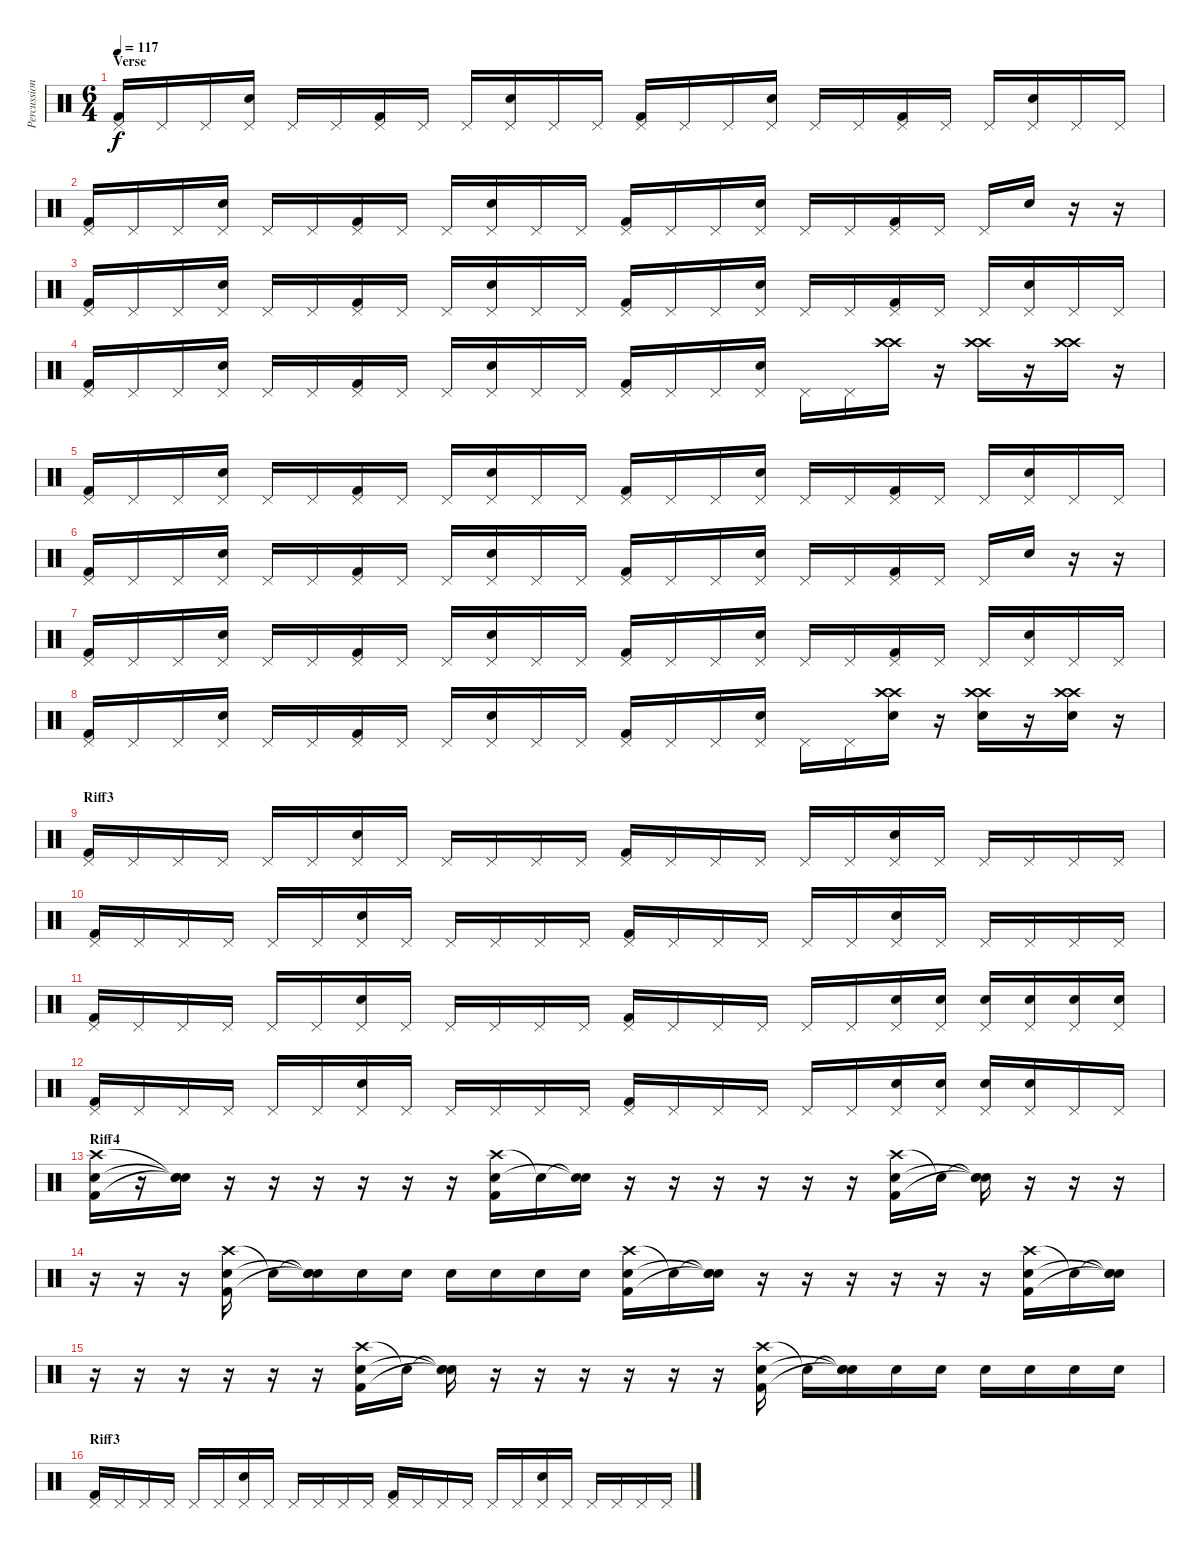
\track ("Percussions" "Percussion") {instrument percussion}
\staff {score}
\articulation defaults
\ts (6 4)
\section ("" "Verse")
\tempo 117
\clef neutral
\ks c
("Pedal Hi-Hat (hit)" "Kick (hit) 2").16{dy f} "Pedal Hi-Hat (hit)".16 "Pedal Hi-Hat (hit)".16 ("Pedal Hi-Hat (hit)" "Electric Snare (hit)").16 "Pedal Hi-Hat (hit)".16 "Pedal Hi-Hat (hit)".16 ("Pedal Hi-Hat (hit)" "Kick (hit) 2").16 "Pedal Hi-Hat (hit)".16 "Pedal Hi-Hat (hit)".16 ("Pedal Hi-Hat (hit)" "Electric Snare (hit)").16 "Pedal Hi-Hat (hit)".16 "Pedal Hi-Hat (hit)".16 ("Pedal Hi-Hat (hit)" "Kick (hit) 2").16 "Pedal Hi-Hat (hit)".16 "Pedal Hi-Hat (hit)".16 ("Pedal Hi-Hat (hit)" "Electric Snare (hit)").16 "Pedal Hi-Hat (hit)".16 "Pedal Hi-Hat (hit)".16 ("Pedal Hi-Hat (hit)" "Kick (hit) 2").16 "Pedal Hi-Hat (hit)".16 "Pedal Hi-Hat (hit)".16 ("Pedal Hi-Hat (hit)" "Electric Snare (hit)").16 "Pedal Hi-Hat (hit)".16 "Pedal Hi-Hat (hit)".16 |
("Pedal Hi-Hat (hit)" "Kick (hit) 2").16 "Pedal Hi-Hat (hit)".16 "Pedal Hi-Hat (hit)".16 ("Pedal Hi-Hat (hit)" "Electric Snare (hit)").16 "Pedal Hi-Hat (hit)".16 "Pedal Hi-Hat (hit)".16 ("Pedal Hi-Hat (hit)" "Kick (hit) 2").16 "Pedal Hi-Hat (hit)".16 "Pedal Hi-Hat (hit)".16 ("Pedal Hi-Hat (hit)" "Electric Snare (hit)").16 "Pedal Hi-Hat (hit)".16 "Pedal Hi-Hat (hit)".16 ("Pedal Hi-Hat (hit)" "Kick (hit) 2").16 "Pedal Hi-Hat (hit)".16 "Pedal Hi-Hat (hit)".16 ("Pedal Hi-Hat (hit)" "Electric Snare (hit)").16 "Pedal Hi-Hat (hit)".16 "Pedal Hi-Hat (hit)".16 ("Pedal Hi-Hat (hit)" "Kick (hit) 2").16 "Pedal Hi-Hat (hit)".16 "Pedal Hi-Hat (hit)".16 "Electric Snare (hit)".16 r.16 r.16 |
("Pedal Hi-Hat (hit)" "Kick (hit) 2").16 "Pedal Hi-Hat (hit)".16 "Pedal Hi-Hat (hit)".16 ("Pedal Hi-Hat (hit)" "Electric Snare (hit)").16 "Pedal Hi-Hat (hit)".16 "Pedal Hi-Hat (hit)".16 ("Pedal Hi-Hat (hit)" "Kick (hit) 2").16 "Pedal Hi-Hat (hit)".16 "Pedal Hi-Hat (hit)".16 ("Pedal Hi-Hat (hit)" "Electric Snare (hit)").16 "Pedal Hi-Hat (hit)".16 "Pedal Hi-Hat (hit)".16 ("Pedal Hi-Hat (hit)" "Kick (hit) 2").16 "Pedal Hi-Hat (hit)".16 "Pedal Hi-Hat (hit)".16 ("Pedal Hi-Hat (hit)" "Electric Snare (hit)").16 "Pedal Hi-Hat (hit)".16 "Pedal Hi-Hat (hit)".16 ("Pedal Hi-Hat (hit)" "Kick (hit) 2").16 "Pedal Hi-Hat (hit)".16 "Pedal Hi-Hat (hit)".16 ("Pedal Hi-Hat (hit)" "Electric Snare (hit)").16 "Pedal Hi-Hat (hit)".16 "Pedal Hi-Hat (hit)".16 |
("Pedal Hi-Hat (hit)" "Kick (hit) 2").16 "Pedal Hi-Hat (hit)".16 "Pedal Hi-Hat (hit)".16 ("Pedal Hi-Hat (hit)" "Electric Snare (hit)").16 "Pedal Hi-Hat (hit)".16 "Pedal Hi-Hat (hit)".16 ("Pedal Hi-Hat (hit)" "Kick (hit) 2").16 "Pedal Hi-Hat (hit)".16 "Pedal Hi-Hat (hit)".16 ("Pedal Hi-Hat (hit)" "Electric Snare (hit)").16 "Pedal Hi-Hat (hit)".16 "Pedal Hi-Hat (hit)".16 ("Pedal Hi-Hat (hit)" "Kick (hit) 2").16 "Pedal Hi-Hat (hit)".16 "Pedal Hi-Hat (hit)".16 ("Pedal Hi-Hat (hit)" "Electric Snare (hit)").16 "Pedal Hi-Hat (hit)".16 "Pedal Hi-Hat (hit)".16 ("Crash high (hit)" "Crash high (hit)").16 r.16 ("Crash high (hit)" "Crash high (hit)").16 r.16 ("Crash high (hit)" "Crash high (hit)").16 r.16 |
("Pedal Hi-Hat (hit)" "Kick (hit) 2").16 "Pedal Hi-Hat (hit)".16 "Pedal Hi-Hat (hit)".16 ("Pedal Hi-Hat (hit)" "Electric Snare (hit)").16 "Pedal Hi-Hat (hit)".16 "Pedal Hi-Hat (hit)".16 ("Pedal Hi-Hat (hit)" "Kick (hit) 2").16 "Pedal Hi-Hat (hit)".16 "Pedal Hi-Hat (hit)".16 ("Pedal Hi-Hat (hit)" "Electric Snare (hit)").16 "Pedal Hi-Hat (hit)".16 "Pedal Hi-Hat (hit)".16 ("Pedal Hi-Hat (hit)" "Kick (hit) 2").16 "Pedal Hi-Hat (hit)".16 "Pedal Hi-Hat (hit)".16 ("Pedal Hi-Hat (hit)" "Electric Snare (hit)").16 "Pedal Hi-Hat (hit)".16 "Pedal Hi-Hat (hit)".16 ("Pedal Hi-Hat (hit)" "Kick (hit) 2").16 "Pedal Hi-Hat (hit)".16 "Pedal Hi-Hat (hit)".16 ("Pedal Hi-Hat (hit)" "Electric Snare (hit)").16 "Pedal Hi-Hat (hit)".16 "Pedal Hi-Hat (hit)".16 |
("Pedal Hi-Hat (hit)" "Kick (hit) 2").16 "Pedal Hi-Hat (hit)".16 "Pedal Hi-Hat (hit)".16 ("Pedal Hi-Hat (hit)" "Electric Snare (hit)").16 "Pedal Hi-Hat (hit)".16 "Pedal Hi-Hat (hit)".16 ("Pedal Hi-Hat (hit)" "Kick (hit) 2").16 "Pedal Hi-Hat (hit)".16 "Pedal Hi-Hat (hit)".16 ("Pedal Hi-Hat (hit)" "Electric Snare (hit)").16 "Pedal Hi-Hat (hit)".16 "Pedal Hi-Hat (hit)".16 ("Pedal Hi-Hat (hit)" "Kick (hit) 2").16 "Pedal Hi-Hat (hit)".16 "Pedal Hi-Hat (hit)".16 ("Pedal Hi-Hat (hit)" "Electric Snare (hit)").16 "Pedal Hi-Hat (hit)".16 "Pedal Hi-Hat (hit)".16 ("Pedal Hi-Hat (hit)" "Kick (hit) 2").16 "Pedal Hi-Hat (hit)".16 "Pedal Hi-Hat (hit)".16 "Electric Snare (hit)".16 r.16 r.16 |
("Pedal Hi-Hat (hit)" "Kick (hit) 2").16 "Pedal Hi-Hat (hit)".16 "Pedal Hi-Hat (hit)".16 ("Pedal Hi-Hat (hit)" "Electric Snare (hit)").16 "Pedal Hi-Hat (hit)".16 "Pedal Hi-Hat (hit)".16 ("Pedal Hi-Hat (hit)" "Kick (hit) 2").16 "Pedal Hi-Hat (hit)".16 "Pedal Hi-Hat (hit)".16 ("Pedal Hi-Hat (hit)" "Electric Snare (hit)").16 "Pedal Hi-Hat (hit)".16 "Pedal Hi-Hat (hit)".16 ("Pedal Hi-Hat (hit)" "Kick (hit) 2").16 "Pedal Hi-Hat (hit)".16 "Pedal Hi-Hat (hit)".16 ("Pedal Hi-Hat (hit)" "Electric Snare (hit)").16 "Pedal Hi-Hat (hit)".16 "Pedal Hi-Hat (hit)".16 ("Pedal Hi-Hat (hit)" "Kick (hit) 2").16 "Pedal Hi-Hat (hit)".16 "Pedal Hi-Hat (hit)".16 ("Pedal Hi-Hat (hit)" "Electric Snare (hit)").16 "Pedal Hi-Hat (hit)".16 "Pedal Hi-Hat (hit)".16 |
("Pedal Hi-Hat (hit)" "Kick (hit) 2").16 "Pedal Hi-Hat (hit)".16 "Pedal Hi-Hat (hit)".16 ("Pedal Hi-Hat (hit)" "Electric Snare (hit)").16 "Pedal Hi-Hat (hit)".16 "Pedal Hi-Hat (hit)".16 ("Pedal Hi-Hat (hit)" "Kick (hit) 2").16 "Pedal Hi-Hat (hit)".16 "Pedal Hi-Hat (hit)".16 ("Pedal Hi-Hat (hit)" "Electric Snare (hit)").16 "Pedal Hi-Hat (hit)".16 "Pedal Hi-Hat (hit)".16 ("Pedal Hi-Hat (hit)" "Kick (hit) 2").16 "Pedal Hi-Hat (hit)".16 "Pedal Hi-Hat (hit)".16 ("Pedal Hi-Hat (hit)" "Electric Snare (hit)").16 "Pedal Hi-Hat (hit)".16 "Pedal Hi-Hat (hit)".16 ("Crash high (hit)" "Crash high (hit)" "Electric Snare (hit)").16 r.16 ("Crash high (hit)" "Crash high (hit)" "Electric Snare (hit)").16 r.16 ("Crash high (hit)" "Crash high (hit)" "Electric Snare (hit)").16 r.16 |
\section ("" "Riff3")
("Pedal Hi-Hat (hit)" "Kick (hit) 2").16 "Pedal Hi-Hat (hit)".16 "Pedal Hi-Hat (hit)".16 "Pedal Hi-Hat (hit)".16 "Pedal Hi-Hat (hit)".16 "Pedal Hi-Hat (hit)".16 ("Pedal Hi-Hat (hit)" "Electric Snare (hit)").16 "Pedal Hi-Hat (hit)".16 "Pedal Hi-Hat (hit)".16 "Pedal Hi-Hat (hit)".16 "Pedal Hi-Hat (hit)".16 "Pedal Hi-Hat (hit)".16 ("Pedal Hi-Hat (hit)" "Kick (hit) 2").16 "Pedal Hi-Hat (hit)".16 "Pedal Hi-Hat (hit)".16 "Pedal Hi-Hat (hit)".16 "Pedal Hi-Hat (hit)".16 "Pedal Hi-Hat (hit)".16 ("Pedal Hi-Hat (hit)" "Electric Snare (hit)").16 "Pedal Hi-Hat (hit)".16 "Pedal Hi-Hat (hit)".16 "Pedal Hi-Hat (hit)".16 "Pedal Hi-Hat (hit)".16 "Pedal Hi-Hat (hit)".16 |
("Pedal Hi-Hat (hit)" "Kick (hit) 2").16 "Pedal Hi-Hat (hit)".16 "Pedal Hi-Hat (hit)".16 "Pedal Hi-Hat (hit)".16 "Pedal Hi-Hat (hit)".16 "Pedal Hi-Hat (hit)".16 ("Pedal Hi-Hat (hit)" "Electric Snare (hit)").16 "Pedal Hi-Hat (hit)".16 "Pedal Hi-Hat (hit)".16 "Pedal Hi-Hat (hit)".16 "Pedal Hi-Hat (hit)".16 "Pedal Hi-Hat (hit)".16 ("Pedal Hi-Hat (hit)" "Kick (hit) 2").16 "Pedal Hi-Hat (hit)".16 "Pedal Hi-Hat (hit)".16 "Pedal Hi-Hat (hit)".16 "Pedal Hi-Hat (hit)".16 "Pedal Hi-Hat (hit)".16 ("Pedal Hi-Hat (hit)" "Electric Snare (hit)").16 "Pedal Hi-Hat (hit)".16 "Pedal Hi-Hat (hit)".16 "Pedal Hi-Hat (hit)".16 "Pedal Hi-Hat (hit)".16 "Pedal Hi-Hat (hit)".16 |
("Pedal Hi-Hat (hit)" "Kick (hit) 2").16 "Pedal Hi-Hat (hit)".16 "Pedal Hi-Hat (hit)".16 "Pedal Hi-Hat (hit)".16 "Pedal Hi-Hat (hit)".16 "Pedal Hi-Hat (hit)".16 ("Pedal Hi-Hat (hit)" "Electric Snare (hit)").16 "Pedal Hi-Hat (hit)".16 "Pedal Hi-Hat (hit)".16 "Pedal Hi-Hat (hit)".16 "Pedal Hi-Hat (hit)".16 "Pedal Hi-Hat (hit)".16 ("Pedal Hi-Hat (hit)" "Kick (hit) 2").16 "Pedal Hi-Hat (hit)".16 "Pedal Hi-Hat (hit)".16 "Pedal Hi-Hat (hit)".16 "Pedal Hi-Hat (hit)".16 "Pedal Hi-Hat (hit)".16 ("Pedal Hi-Hat (hit)" "Electric Snare (hit)").16 ("Pedal Hi-Hat (hit)" "Electric Snare (hit)").16 ("Pedal Hi-Hat (hit)" "Electric Snare (hit)").16 ("Pedal Hi-Hat (hit)" "Electric Snare (hit)").16 ("Pedal Hi-Hat (hit)" "Electric Snare (hit)").16 ("Pedal Hi-Hat (hit)" "Electric Snare (hit)").16 |
("Pedal Hi-Hat (hit)" "Kick (hit) 2").16 "Pedal Hi-Hat (hit)".16 "Pedal Hi-Hat (hit)".16 "Pedal Hi-Hat (hit)".16 "Pedal Hi-Hat (hit)".16 "Pedal Hi-Hat (hit)".16 ("Pedal Hi-Hat (hit)" "Electric Snare (hit)").16 "Pedal Hi-Hat (hit)".16 "Pedal Hi-Hat (hit)".16 "Pedal Hi-Hat (hit)".16 "Pedal Hi-Hat (hit)".16 "Pedal Hi-Hat (hit)".16 ("Pedal Hi-Hat (hit)" "Kick (hit) 2").16 "Pedal Hi-Hat (hit)".16 "Pedal Hi-Hat (hit)".16 "Pedal Hi-Hat (hit)".16 "Pedal Hi-Hat (hit)".16 "Pedal Hi-Hat (hit)".16 ("Pedal Hi-Hat (hit)" "Electric Snare (hit)").16 ("Pedal Hi-Hat (hit)" "Electric Snare (hit)").16 ("Pedal Hi-Hat (hit)" "Electric Snare (hit)").16 ("Pedal Hi-Hat (hit)" "Electric Snare (hit)").16 "Pedal Hi-Hat (hit)".16 "Pedal Hi-Hat (hit)".16 |
\section ("" "Riff4")
("Crash high (hit)" "Electric Snare (hit)" "Kick (hit) 2").16 r.16 ("Snare (hit)"{t} "Snare (hit)"{t} "Snare (hit)"{t}).16 r.16 r.16 r.16 r.16 r.16 r.16 ("Crash high (hit)" "Electric Snare (hit)" "Kick (hit) 2").16 "Snare (hit)"{t}.16 ("Snare (hit)"{t} "Snare (hit)"{t}).16 r.16 r.16 r.16 r.16 r.16 r.16 ("Crash high (hit)" "Electric Snare (hit)" "Kick (hit) 2").16 "Snare (hit)"{t}.16 ("Snare (hit)"{t} "Snare (hit)"{t} "Snare (hit)"{t}).16 r.16 r.16 r.16 |
r.16 r.16 r.16 ("Crash high (hit)" "Electric Snare (hit)" "Kick (hit) 2").16 "Snare (hit)"{t}.16 ("Snare (hit)"{t} "Snare (hit)"{t} "Snare (hit)"{t}).16 "Electric Snare (hit)".16 "Electric Snare (hit)".16 "Electric Snare (hit)".16 "Electric Snare (hit)".16 "Electric Snare (hit)".16 "Electric Snare (hit)".16 ("Crash high (hit)" "Electric Snare (hit)" "Kick (hit) 2").16 "Snare (hit)"{t}.16 ("Snare (hit)"{t} "Snare (hit)"{t} "Snare (hit)"{t}).16 r.16 r.16 r.16 r.16 r.16 r.16 ("Crash high (hit)" "Electric Snare (hit)" "Kick (hit) 2").16 "Snare (hit)"{t}.16 ("Snare (hit)"{t} "Snare (hit)"{t} "Snare (hit)"{t}).16 |
r.16 r.16 r.16 r.16 r.16 r.16 ("Crash high (hit)" "Electric Snare (hit)" "Kick (hit) 2").16 "Snare (hit)"{t}.16 ("Snare (hit)"{t} "Snare (hit)"{t} "Snare (hit)"{t}).16 r.16 r.16 r.16 r.16 r.16 r.16 ("Crash high (hit)" "Electric Snare (hit)" "Kick (hit) 2").16 "Snare (hit)"{t}.16 ("Snare (hit)"{t} "Snare (hit)"{t} "Snare (hit)"{t}).16 "Electric Snare (hit)".16 "Electric Snare (hit)".16 "Electric Snare (hit)".16 "Electric Snare (hit)".16 "Electric Snare (hit)".16 "Electric Snare (hit)".16 |
\section ("" "Riff3")
("Pedal Hi-Hat (hit)" "Kick (hit) 2").16 "Pedal Hi-Hat (hit)".16 "Pedal Hi-Hat (hit)".16 "Pedal Hi-Hat (hit)".16 "Pedal Hi-Hat (hit)".16 "Pedal Hi-Hat (hit)".16 ("Pedal Hi-Hat (hit)" "Electric Snare (hit)").16 "Pedal Hi-Hat (hit)".16 "Pedal Hi-Hat (hit)".16 "Pedal Hi-Hat (hit)".16 "Pedal Hi-Hat (hit)".16 "Pedal Hi-Hat (hit)".16 ("Pedal Hi-Hat (hit)" "Kick (hit) 2").16 "Pedal Hi-Hat (hit)".16 "Pedal Hi-Hat (hit)".16 "Pedal Hi-Hat (hit)".16 "Pedal Hi-Hat (hit)".16 "Pedal Hi-Hat (hit)".16 ("Pedal Hi-Hat (hit)" "Electric Snare (hit)").16 "Pedal Hi-Hat (hit)".16 "Pedal Hi-Hat (hit)".16 "Pedal Hi-Hat (hit)".16 "Pedal Hi-Hat (hit)".16 "Pedal Hi-Hat (hit)".16
